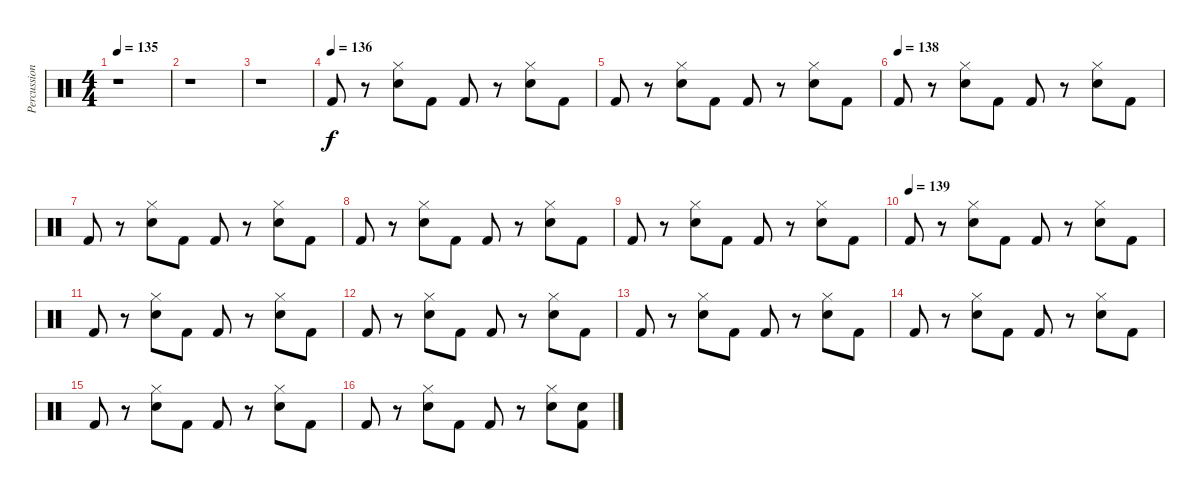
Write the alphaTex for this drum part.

\track ("Percussion" "Percussion") {instrument percussion}
\staff {score}
\articulation defaults
\ts (4 4)
\tempo 135
\clef neutral
\ks c
r.1{dy f} |
r.1 |
r.1 |
\tempo (136)
"Kick (hit) 2".8 r.8 ("Hi-Hat (closed)" "Snare (hit) 2").8 "Kick (hit) 2".8 "Kick (hit) 2".8 r.8 ("Hi-Hat (closed)" "Snare (hit) 2").8 "Kick (hit) 2".8 |
"Kick (hit) 2".8 r.8 ("Hi-Hat (closed)" "Snare (hit) 2").8 "Kick (hit) 2".8 "Kick (hit) 2".8 r.8 ("Hi-Hat (closed)" "Snare (hit) 2").8 "Kick (hit) 2".8 |
\tempo (138)
"Kick (hit) 2".8 r.8 ("Hi-Hat (closed)" "Snare (hit) 2").8 "Kick (hit) 2".8 "Kick (hit) 2".8 r.8 ("Hi-Hat (closed)" "Snare (hit) 2").8 "Kick (hit) 2".8 |
"Kick (hit) 2".8 r.8 ("Hi-Hat (closed)" "Snare (hit) 2").8 "Kick (hit) 2".8 "Kick (hit) 2".8 r.8 ("Hi-Hat (closed)" "Snare (hit) 2").8 "Kick (hit) 2".8 |
"Kick (hit) 2".8 r.8 ("Hi-Hat (closed)" "Snare (hit) 2").8 "Kick (hit) 2".8 "Kick (hit) 2".8 r.8 ("Hi-Hat (closed)" "Snare (hit) 2").8 "Kick (hit) 2".8 |
"Kick (hit) 2".8 r.8 ("Hi-Hat (closed)" "Snare (hit) 2").8 "Kick (hit) 2".8 "Kick (hit) 2".8 r.8 ("Hi-Hat (closed)" "Snare (hit) 2").8 "Kick (hit) 2".8 |
\tempo (139)
"Kick (hit) 2".8 r.8 ("Hi-Hat (closed)" "Snare (hit) 2").8 "Kick (hit) 2".8 "Kick (hit) 2".8 r.8 ("Hi-Hat (closed)" "Snare (hit) 2").8 "Kick (hit) 2".8 |
"Kick (hit) 2".8 r.8 ("Hi-Hat (closed)" "Snare (hit) 2").8 "Kick (hit) 2".8 "Kick (hit) 2".8 r.8 ("Hi-Hat (closed)" "Snare (hit) 2").8 "Kick (hit) 2".8 |
"Kick (hit) 2".8 r.8 ("Hi-Hat (closed)" "Snare (hit) 2").8 "Kick (hit) 2".8 "Kick (hit) 2".8 r.8 ("Hi-Hat (closed)" "Snare (hit) 2").8 "Kick (hit) 2".8 |
"Kick (hit) 2".8 r.8 ("Hi-Hat (closed)" "Snare (hit) 2").8 "Kick (hit) 2".8 "Kick (hit) 2".8 r.8 ("Hi-Hat (closed)" "Snare (hit) 2").8 "Kick (hit) 2".8 |
"Kick (hit) 2".8 r.8 ("Hi-Hat (closed)" "Snare (hit) 2").8 "Kick (hit) 2".8 "Kick (hit) 2".8 r.8 ("Hi-Hat (closed)" "Snare (hit) 2").8 "Kick (hit) 2".8 |
"Kick (hit) 2".8 r.8 ("Hi-Hat (closed)" "Snare (hit) 2").8 "Kick (hit) 2".8 "Kick (hit) 2".8 r.8 ("Hi-Hat (closed)" "Snare (hit) 2").8 "Kick (hit) 2".8 |
"Kick (hit) 2".8 r.8 ("Hi-Hat (closed)" "Snare (hit) 2").8 "Kick (hit) 2".8 "Kick (hit) 2".8 r.8 ("Hi-Hat (closed)" "Snare (hit) 2").8 ("Snare (hit) 2" "Kick (hit) 2").8
